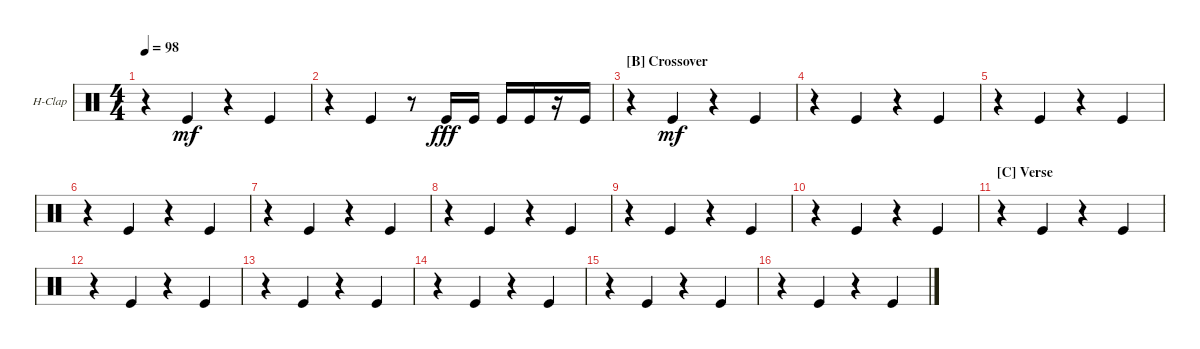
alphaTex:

\defaultSystemsLayout 4
\bracketExtendMode groupsimilarinstruments
\firstSystemTrackNameOrientation horizontal
\otherSystemsTrackNameOrientation horizontal
\track ("Hand Clap" "H-Clap") {instrument percussion}
\staff {score}
\articulation defaults
\ts (4 4)
\tempo 98
\clef neutral
\ks c
r.4{dy mf} "Kick (hit)".4 r.4 "Kick (hit)".4 |
r.4 "Kick (hit)".4 r.8 "Kick (hit)".16{dy fff} "Kick (hit)".16 "Kick (hit)".16 "Kick (hit)".16 r.16 "Kick (hit)".16 |
\section ("B" "Crossover")
r.4 "Kick (hit)".4{dy mf} r.4 "Kick (hit)".4 |
r.4 "Kick (hit)".4 r.4 "Kick (hit)".4 |
r.4 "Kick (hit)".4 r.4 "Kick (hit)".4 |
r.4 "Kick (hit)".4 r.4 "Kick (hit)".4 |
r.4 "Kick (hit)".4 r.4 "Kick (hit)".4 |
r.4 "Kick (hit)".4 r.4 "Kick (hit)".4 |
r.4 "Kick (hit)".4 r.4 "Kick (hit)".4 |
r.4 "Kick (hit)".4 r.4 "Kick (hit)".4 |
\section ("C" "Verse")
r.4 "Kick (hit)".4 r.4 "Kick (hit)".4 |
r.4 "Kick (hit)".4 r.4 "Kick (hit)".4 |
r.4 "Kick (hit)".4 r.4 "Kick (hit)".4 |
r.4 "Kick (hit)".4 r.4 "Kick (hit)".4 |
r.4 "Kick (hit)".4 r.4 "Kick (hit)".4 |
r.4 "Kick (hit)".4 r.4 "Kick (hit)".4
